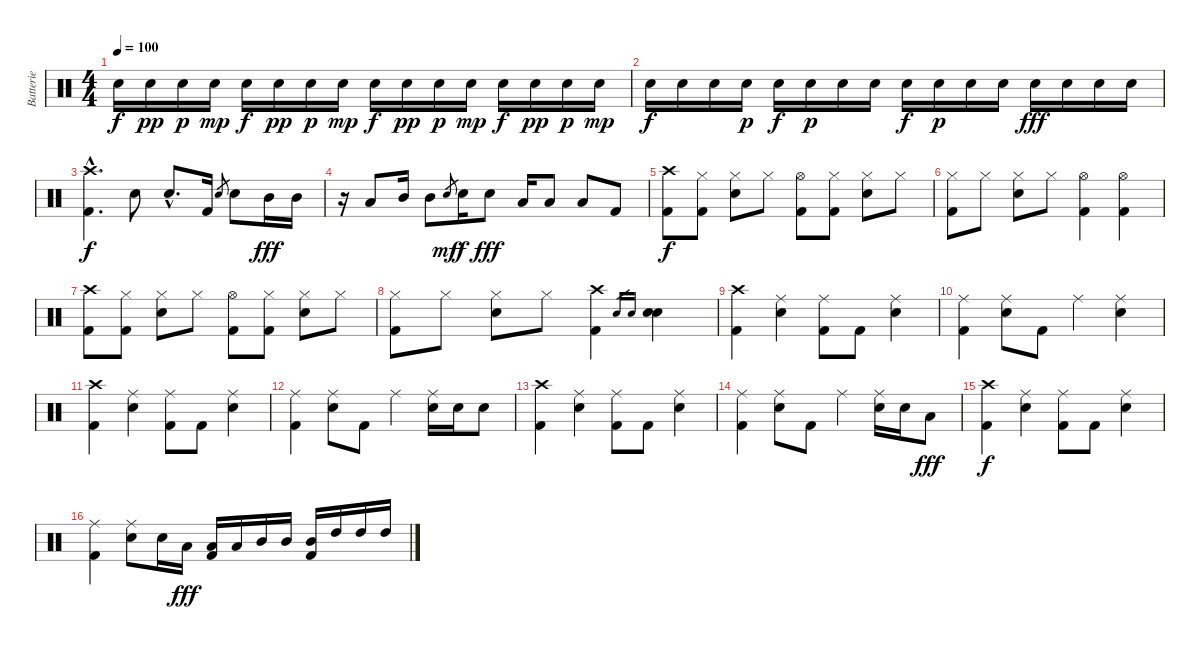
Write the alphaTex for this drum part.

\track ("Batterie" "Batterie") {instrument percussion}
\staff {score}
\articulation defaults
\ts (4 4)
\tempo 100
\clef neutral
\ks c "Electric Snare (hit)".16{dy f} "Snare (hit) 2".16{dy pp} "Snare (hit) 2".16{dy p} "Snare (hit) 2".16{dy mp} "Electric Snare (hit)".16{dy f} "Snare (hit) 2".16{dy pp} "Snare (hit) 2".16{dy p} "Snare (hit) 2".16{dy mp} "Electric Snare (hit)".16{dy f} "Snare (hit) 2".16{dy pp} "Snare (hit) 2".16{dy p} "Snare (hit) 2".16{dy mp} "Electric Snare (hit)".16{dy f} "Snare (hit) 2".16{dy pp} "Snare (hit) 2".16{dy p} "Snare (hit) 2".16{dy mp}
|
"Electric Snare (hit)".16{dy f} "Electric Snare (hit)".16 "Electric Snare (hit)".16 "Snare (hit) 2".16{dy p} "Electric Snare (hit)".16{dy f} "Snare (hit) 2".16{dy p} "Snare (hit) 2".16 "Snare (hit) 2".16 "Electric Snare (hit)".16{dy f} "Snare (hit) 2".16{dy p} "Snare (hit) 2".16 "Snare (hit) 2".16 "Electric Snare (hit)".16{dy fff} "Electric Snare (hit)".16 "Electric Snare (hit)".16 "Electric Snare (hit)".16 |
("Crash high (hit)"{hac} "Kick (hit) 2"{hac}).4{d dy f} "Electric Snare (hit)".8 "Electric Snare (hit)"{hac}.8{d} "Kick (hit) 2".16 "Electric Snare (hit)".8{gr} "Electric Snare (hit)".8 "Mid Tom (hit)".16{dy fff} "Mid Tom (hit)".16 |
r.16 "Low Tom (hit)".8 "Mid Tom (hit)".16 "Mid Tom (hit)".8 "Electric Snare (hit)".8{gr dy mf} "Electric Snare (hit)".16{dy f} "Electric Snare (hit)".8{dy fff} "Low Tom (hit)".16 "Low Tom (hit)".8 "Low Tom (hit)".8 "Kick (hit) 2".8 |
("Crash high (hit)" "Kick (hit) 2").8{dy f} ("Hi-Hat (closed)" "Kick (hit) 2").8 ("Hi-Hat (closed)" "Electric Snare (hit)").8 "Hi-Hat (closed)".8 ("Hi-Hat (open)" "Kick (hit) 2").8 ("Hi-Hat (closed)" "Kick (hit) 2").8 ("Hi-Hat (closed)" "Electric Snare (hit)").8 "Hi-Hat (closed)".8 |
("Hi-Hat (closed)" "Kick (hit) 2").8 "Hi-Hat (closed)".8 ("Hi-Hat (closed)" "Electric Snare (hit)").8 "Hi-Hat (closed)".8 ("Hi-Hat (open)" "Kick (hit) 2").4 ("Hi-Hat (open)" "Kick (hit) 2").4 |
("Crash high (hit)" "Kick (hit) 2").8 ("Hi-Hat (closed)" "Kick (hit) 2").8 ("Hi-Hat (closed)" "Electric Snare (hit)").8 "Hi-Hat (closed)".8 ("Hi-Hat (open)" "Kick (hit) 2").8 ("Hi-Hat (closed)" "Kick (hit) 2").8 ("Hi-Hat (closed)" "Electric Snare (hit)").8 "Hi-Hat (closed)".8 |
("Hi-Hat (closed)" "Kick (hit) 2").8 "Hi-Hat (closed)".8 ("Hi-Hat (closed)" "Electric Snare (hit)").8 "Hi-Hat (closed)".8 ("Crash high (hit)" "Kick (hit) 2").4 "Electric Snare (hit)".16{gr} "Electric Snare (hit)".16{gr} ("Electric Snare (hit)" "Electric Snare (hit)").4 |
("Crash high (hit)" "Kick (hit) 2").4 ("Ride (middle)" "Electric Snare (hit)").4 ("Ride (middle)" "Kick (hit) 2").8 "Kick (hit) 2".8 ("Ride (middle)" "Electric Snare (hit)").4 |
("Ride (middle)" "Kick (hit) 2").4 ("Ride (middle)" "Electric Snare (hit)").8 "Kick (hit) 2".8 "Ride (middle)".4 ("Ride (middle)" "Electric Snare (hit)").4 |
("Crash high (hit)" "Kick (hit) 2").4 ("Ride (middle)" "Electric Snare (hit)").4 ("Ride (middle)" "Kick (hit) 2").8 "Kick (hit) 2".8 ("Ride (middle)" "Electric Snare (hit)").4 |
("Ride (middle)" "Kick (hit) 2").4 ("Ride (middle)" "Electric Snare (hit)").8 "Kick (hit) 2".8 "Ride (middle)".4 ("Ride (middle)" "Electric Snare (hit)").16 "Electric Snare (hit)".16 "Electric Snare (hit)".8 |
("Crash high (hit)" "Kick (hit) 2").4 ("Ride (middle)" "Electric Snare (hit)").4 ("Ride (middle)" "Kick (hit) 2").8 "Kick (hit) 2".8 ("Ride (middle)" "Electric Snare (hit)").4 |
("Ride (middle)" "Kick (hit) 2").4 ("Ride (middle)" "Electric Snare (hit)").8 "Kick (hit) 2".8 "Ride (middle)".4 ("Ride (middle)" "Electric Snare (hit)").16 "Electric Snare (hit)".16 "Low Tom (hit)".8{dy fff} |
("Crash high (hit)" "Kick (hit) 2").4{dy f} ("Ride (middle)" "Electric Snare (hit)").4 ("Ride (middle)" "Kick (hit) 2").8 "Kick (hit) 2".8 ("Ride (middle)" "Electric Snare (hit)").4 |
("Ride (middle)" "Kick (hit) 2").4 ("Ride (middle)" "Electric Snare (hit)").8 "Electric Snare (hit)".16 "Low Tom (hit)".16{dy fff} ("Low Tom (hit)" "Kick (hit) 2").16 "Low Tom (hit)".16 "Mid Tom (hit)".16 "Mid Tom (hit)".16 ("Mid Tom (hit)" "Kick (hit) 2").16 "High Tom (hit)".16 "High Tom (hit)".16 "High Tom (hit)".16
